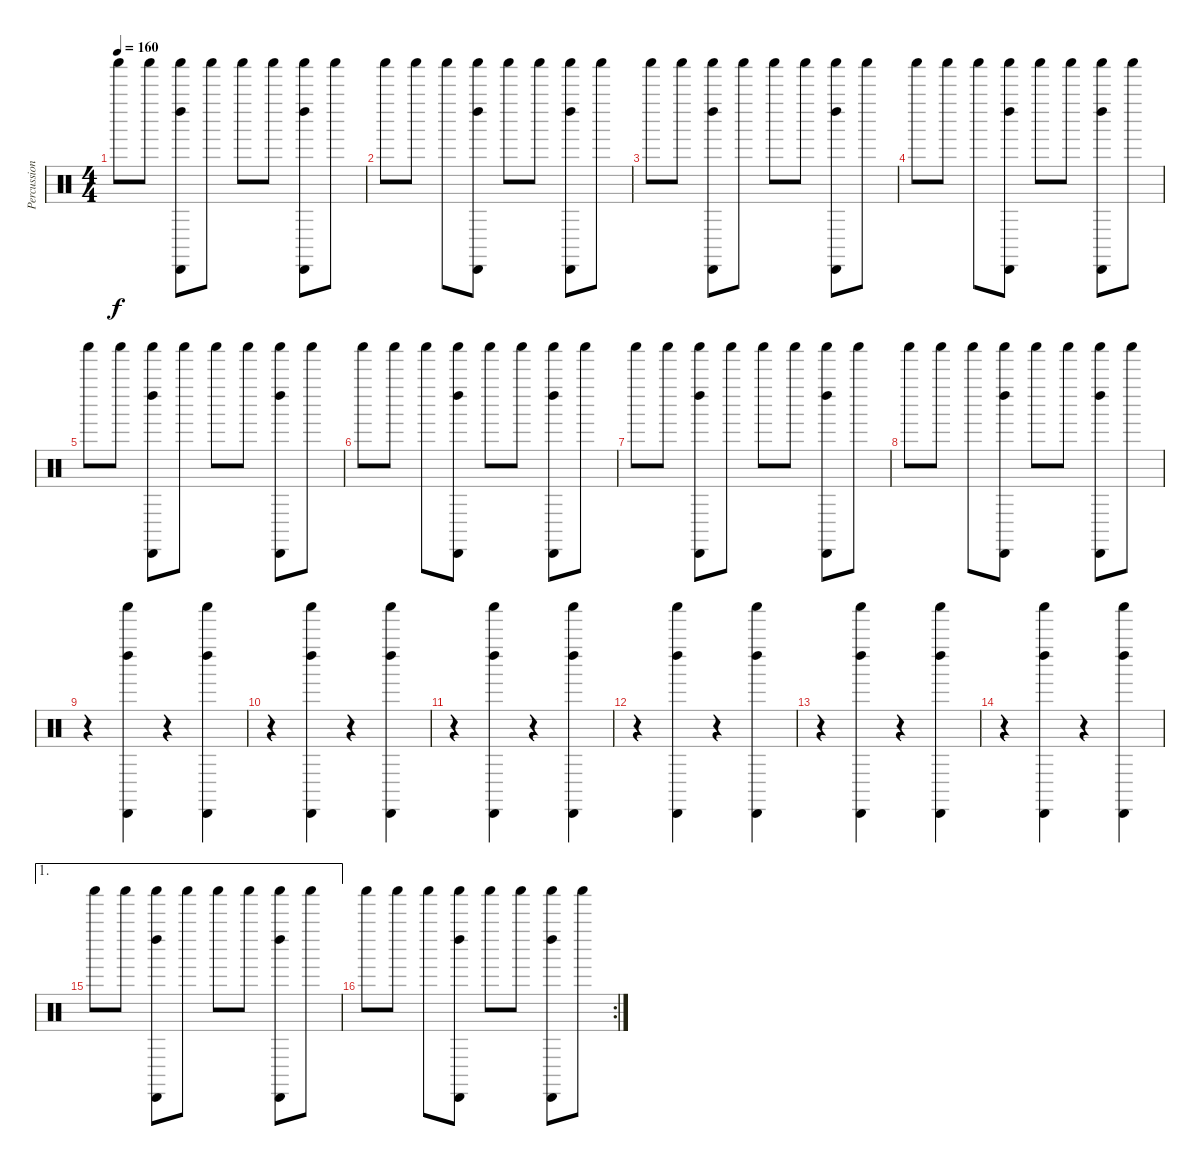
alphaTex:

\track ("Percussion" "Percussion") {instrument percussion}
\staff {score}
\articulation defaults
\ts (4 4)
\tempo 160
\clef neutral
\ks c "Shaker (hit)".8{dy f} "Shaker (hit)".8
("Left Maraca (hit)" "Cabasa (hit)" "Shaker (hit)").8 "Shaker (hit)".8 "Shaker (hit)".8 "Shaker (hit)".8 ("Left Maraca (hit)" "Cabasa (hit)" "Shaker (hit)").8 "Shaker (hit)".8 |
"Shaker (hit)".8 "Shaker (hit)".8 "Shaker (hit)".8 ("Left Maraca (hit)" "Cabasa (hit)" "Shaker (hit)").8 "Shaker (hit)".8 "Shaker (hit)".8 ("Left Maraca (hit)" "Cabasa (hit)" "Shaker (hit)").8 "Shaker (hit)".8 |
"Shaker (hit)".8 "Shaker (hit)".8 ("Left Maraca (hit)" "Cabasa (hit)" "Shaker (hit)").8 "Shaker (hit)".8 "Shaker (hit)".8 "Shaker (hit)".8 ("Left Maraca (hit)" "Cabasa (hit)" "Shaker (hit)").8 "Shaker (hit)".8 |
"Shaker (hit)".8 "Shaker (hit)".8 "Shaker (hit)".8 ("Left Maraca (hit)" "Cabasa (hit)" "Shaker (hit)").8 "Shaker (hit)".8 "Shaker (hit)".8 ("Left Maraca (hit)" "Cabasa (hit)" "Shaker (hit)").8 "Shaker (hit)".8 |
"Shaker (hit)".8 "Shaker (hit)".8 ("Left Maraca (hit)" "Cabasa (hit)" "Shaker (hit)").8 "Shaker (hit)".8 "Shaker (hit)".8 "Shaker (hit)".8 ("Left Maraca (hit)" "Cabasa (hit)" "Shaker (hit)").8 "Shaker (hit)".8 |
"Shaker (hit)".8 "Shaker (hit)".8 "Shaker (hit)".8 ("Left Maraca (hit)" "Cabasa (hit)" "Shaker (hit)").8 "Shaker (hit)".8 "Shaker (hit)".8 ("Left Maraca (hit)" "Cabasa (hit)" "Shaker (hit)").8 "Shaker (hit)".8 |
"Shaker (hit)".8 "Shaker (hit)".8 ("Left Maraca (hit)" "Cabasa (hit)" "Shaker (hit)").8 "Shaker (hit)".8 "Shaker (hit)".8 "Shaker (hit)".8 ("Left Maraca (hit)" "Cabasa (hit)" "Shaker (hit)").8 "Shaker (hit)".8 |
"Shaker (hit)".8 "Shaker (hit)".8 "Shaker (hit)".8 ("Left Maraca (hit)" "Cabasa (hit)" "Shaker (hit)").8 "Shaker (hit)".8 "Shaker (hit)".8 ("Left Maraca (hit)" "Cabasa (hit)" "Shaker (hit)").8 "Shaker (hit)".8 |
r.4 ("Cabasa (hit)" "Left Maraca (hit)" "Shaker (hit)").4 r.4 ("Cabasa (hit)" "Left Maraca (hit)" "Shaker (hit)").4 |
r.4 ("Cabasa (hit)" "Left Maraca (hit)" "Shaker (hit)").4 r.4 ("Cabasa (hit)" "Left Maraca (hit)" "Shaker (hit)").4 |
r.4 ("Cabasa (hit)" "Left Maraca (hit)" "Shaker (hit)").4 r.4 ("Cabasa (hit)" "Left Maraca (hit)" "Shaker (hit)").4 |
r.4 ("Cabasa (hit)" "Left Maraca (hit)" "Shaker (hit)").4 r.4 ("Cabasa (hit)" "Left Maraca (hit)" "Shaker (hit)").4 |
r.4 ("Cabasa (hit)" "Left Maraca (hit)" "Shaker (hit)").4 r.4 ("Cabasa (hit)" "Left Maraca (hit)" "Shaker (hit)").4 |
r.4 ("Cabasa (hit)" "Left Maraca (hit)" "Shaker (hit)").4 r.4 ("Cabasa (hit)" "Left Maraca (hit)" "Shaker (hit)").4 |
\ae 1 "Shaker (hit)".8 "Shaker (hit)".8
("Left Maraca (hit)" "Cabasa (hit)" "Shaker (hit)").8 "Shaker (hit)".8 "Shaker (hit)".8 "Shaker (hit)".8 ("Left Maraca (hit)" "Cabasa (hit)" "Shaker (hit)").8 "Shaker (hit)".8 |
\rc 2 "Shaker (hit)".8 "Shaker (hit)".8 "Shaker (hit)".8
("Left Maraca (hit)" "Cabasa (hit)" "Shaker (hit)").8 "Shaker (hit)".8 "Shaker (hit)".8 ("Left Maraca (hit)" "Cabasa (hit)" "Shaker (hit)").8 "Shaker (hit)".8
